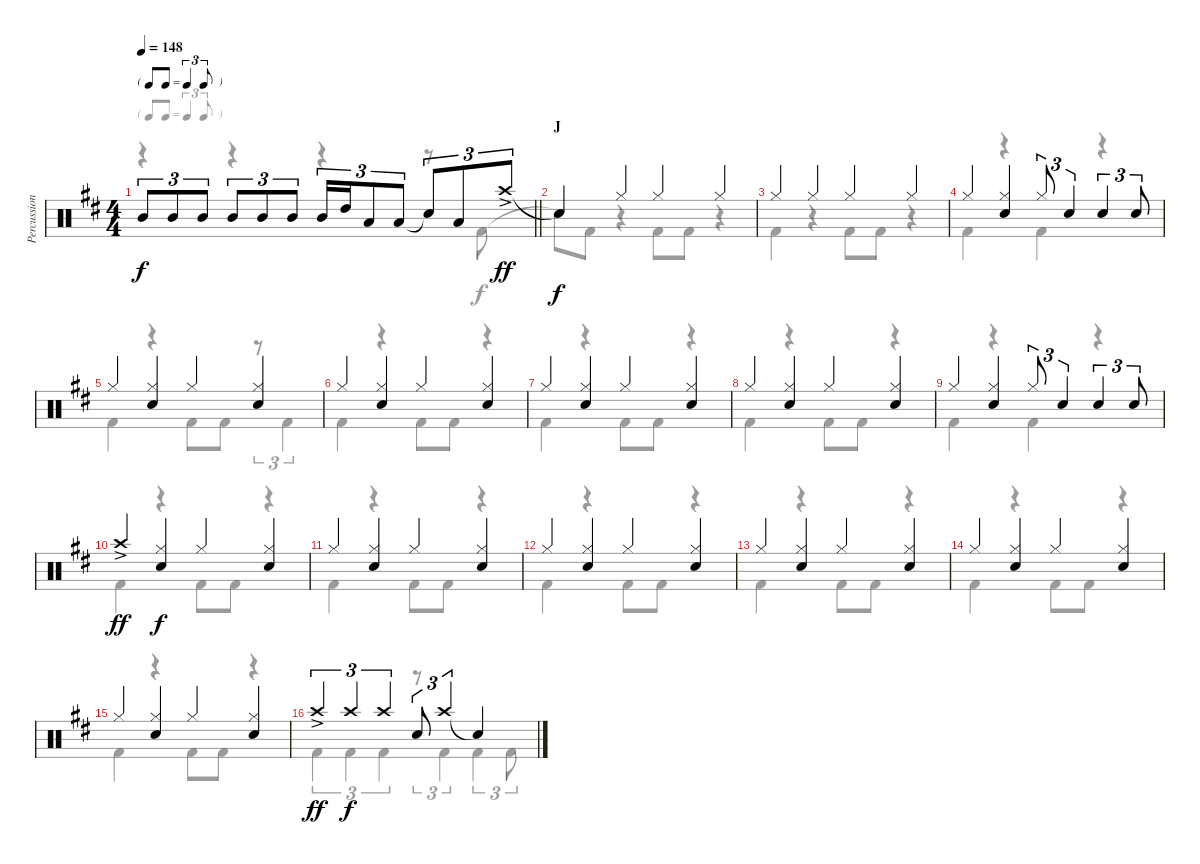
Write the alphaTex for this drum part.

\track ("Percussion" "Percussion") {instrument percussion}
\staff {score}
\articulation defaults
\voice
\ts (4 4)
\tf triplet8th
\tempo 148
\clef neutral
\barLineRight lightlight
\ks bminor "Mid Tom (hit)".8{tu (3 2) dy f} "Mid Tom (hit)".8{tu (3 2)} "Mid Tom (hit)".8{tu (3 2)} "Mid Tom (hit)".8{tu (3 2)} "Mid Tom (hit)".8{tu (3 2)} "Mid Tom (hit)".8{tu (3 2)} "Mid Tom (hit)".16{tu (3 2)} "High Tom (hit)".16{tu (3 2)} "Low Tom (hit)".8{tu (3 2)} "Low Tom (hit)".8{tu (3 2)} "Snare (hit)"{t}.8{tu (3 2)} "Low Tom (hit)".8{tu (3 2)} "Crash high (hit)"{ac}.8{tu (3 2) dy ff}
|
\section ("" "J")
"Snare (hit)"{t}.4{dy f} "Hi-Hat (closed)".4 "Hi-Hat (closed)".4 "Hi-Hat (closed)".4 |
"Hi-Hat (closed)".4 "Hi-Hat (closed)".4 "Hi-Hat (closed)".4 "Hi-Hat (closed)".4 |
"Hi-Hat (closed)".4 ("Hi-Hat (closed)" "Snare (hit) 2").4 "Hi-Hat (closed)".8{tu (3 2)} "Snare (hit) 2".4{tu (3 2)} "Snare (hit) 2".4{tu (3 2)} "Snare (hit) 2".8{tu (3 2)} |
"Hi-Hat (closed)".4 ("Hi-Hat (closed)" "Snare (hit) 2").4 "Hi-Hat (closed)".4 ("Hi-Hat (closed)" "Snare (hit) 2").4 |
"Hi-Hat (closed)".4 ("Hi-Hat (closed)" "Snare (hit) 2").4 "Hi-Hat (closed)".4 ("Hi-Hat (closed)" "Snare (hit) 2").4 |
"Hi-Hat (closed)".4 ("Hi-Hat (closed)" "Snare (hit) 2").4 "Hi-Hat (closed)".4 ("Hi-Hat (closed)" "Snare (hit) 2").4 |
"Hi-Hat (closed)".4 ("Hi-Hat (closed)" "Snare (hit) 2").4 "Hi-Hat (closed)".4 ("Hi-Hat (closed)" "Snare (hit) 2").4 |
"Hi-Hat (closed)".4 ("Hi-Hat (closed)" "Snare (hit) 2").4 "Hi-Hat (closed)".8{tu (3 2)} "Snare (hit) 2".4{tu (3 2)} "Snare (hit) 2".4{tu (3 2)} "Snare (hit) 2".8{tu (3 2)} |
"Crash high (hit)"{ac}.4{dy ff} ("Hi-Hat (closed)" "Snare (hit) 2").4{dy f} "Hi-Hat (closed)".4 ("Hi-Hat (closed)" "Snare (hit) 2").4 |
"Hi-Hat (closed)".4 ("Hi-Hat (closed)" "Snare (hit) 2").4 "Hi-Hat (closed)".4 ("Hi-Hat (closed)" "Snare (hit) 2").4 |
"Hi-Hat (closed)".4 ("Hi-Hat (closed)" "Snare (hit) 2").4 "Hi-Hat (closed)".4 ("Hi-Hat (closed)" "Snare (hit) 2").4 |
"Hi-Hat (closed)".4 ("Hi-Hat (closed)" "Snare (hit) 2").4 "Hi-Hat (closed)".4 ("Hi-Hat (closed)" "Snare (hit) 2").4 |
"Hi-Hat (closed)".4 ("Hi-Hat (closed)" "Snare (hit) 2").4 "Hi-Hat (closed)".4 ("Hi-Hat (closed)" "Snare (hit) 2").4 |
"Hi-Hat (closed)".4 ("Hi-Hat (closed)" "Snare (hit) 2").4 "Hi-Hat (closed)".4 ("Hi-Hat (closed)" "Snare (hit) 2").4 |
"Crash high (hit)"{ac}.4{tu (3 2) dy ff} "Crash high (hit)".4{tu (3 2) dy f} "Crash high (hit)".4{tu (3 2)} "Snare (hit) 2".8{tu (3 2)} "Crash high (hit)".4{tu (3 2)} "Snare (hit)"{t}.4
\voice
\clef neutral
\ottava regular
\simile none
\barLineRight lightlight
\ks bminor
r.4{dy f} r.4 r.4 r.8 "Kick (hit) 2".8 |
"Snare (hit)"{t}.8 "Kick (hit) 2".8 r.4 "Kick (hit) 2".8 "Kick (hit) 2".8 r.4 |
"Kick (hit) 2".4 r.4 "Kick (hit) 2".8 "Kick (hit) 2".8 r.4 |
"Kick (hit) 2".4 r.4 "Kick (hit) 2".4 r.4 |
"Kick (hit) 2".4 r.4 "Kick (hit) 2".8 "Kick (hit) 2".8 r.8{tu (3 2)} "Kick (hit) 2".4{tu (3 2)} |
"Kick (hit) 2".4 r.4 "Kick (hit) 2".8 "Kick (hit) 2".8 r.4 |
"Kick (hit) 2".4 r.4 "Kick (hit) 2".8 "Kick (hit) 2".8 r.4 |
"Kick (hit) 2".4 r.4 "Kick (hit) 2".8 "Kick (hit) 2".8 r.4 |
"Kick (hit) 2".4 r.4 "Kick (hit) 2".4 r.4 |
"Kick (hit) 2".4 r.4 "Kick (hit) 2".8 "Kick (hit) 2".8 r.4 |
"Kick (hit) 2".4 r.4 "Kick (hit) 2".8 "Kick (hit) 2".8 r.4 |
"Kick (hit) 2".4 r.4 "Kick (hit) 2".8 "Kick (hit) 2".8 r.4 |
"Kick (hit) 2".4 r.4 "Kick (hit) 2".8 "Kick (hit) 2".8 r.4 |
"Kick (hit) 2".4 r.4 "Kick (hit) 2".8 "Kick (hit) 2".8 r.4 |
"Kick (hit) 2".4 r.4 "Kick (hit) 2".8 "Kick (hit) 2".8 r.4 |
"Kick (hit) 2".4{tu (3 2)} "Kick (hit) 2".4{tu (3 2)} "Kick (hit) 2".4{tu (3 2)} r.8{tu (3 2)} "Kick (hit) 2".4{tu (3 2)} "Kick (hit) 2".4{tu (3 2)} "Kick (hit) 2".8{tu (3 2)}
